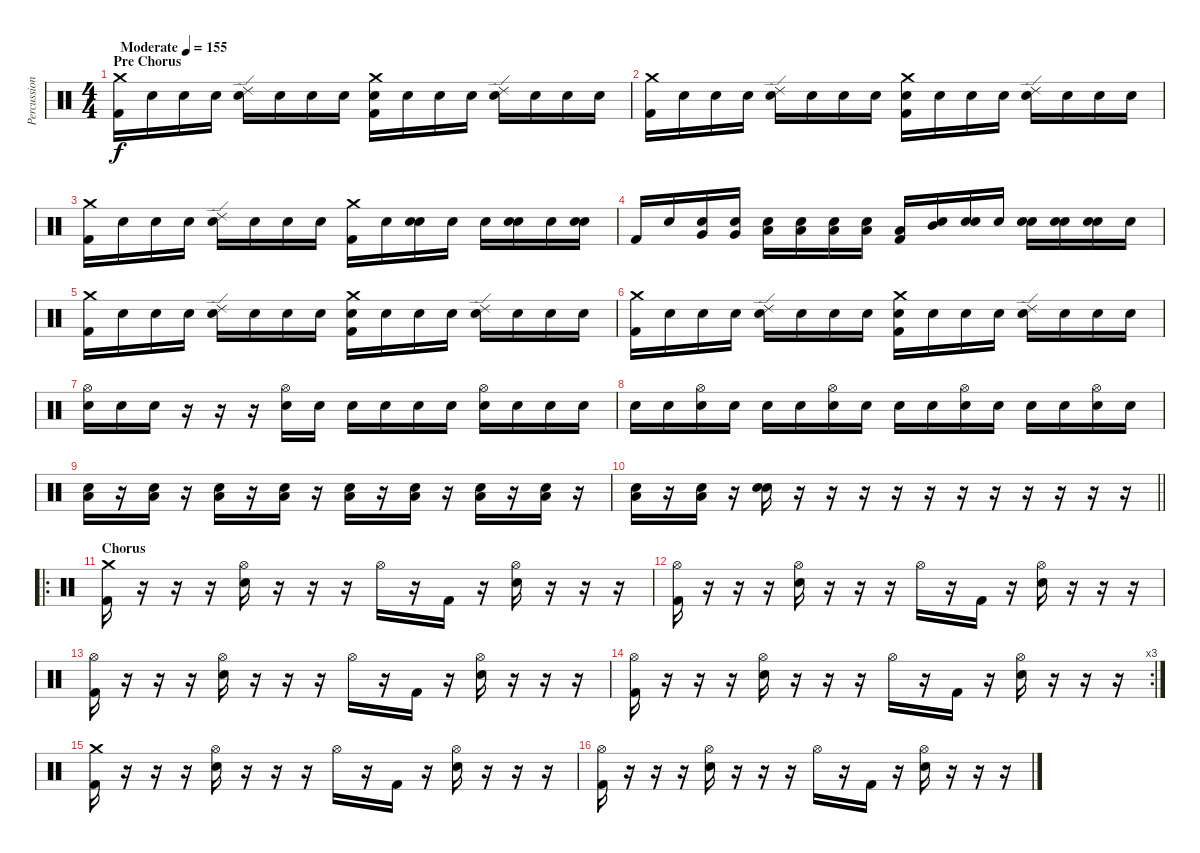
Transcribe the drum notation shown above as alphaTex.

\track ("Percussion" "Percussion") {instrument percussion}
\staff {score}
\articulation defaults
\ts (4 4)
\section ("" "Pre Chorus")
\tempo (155 "Moderate")
\clef neutral
\ks c
("Crash medium (hit)" "Kick (hit) 2").16{dy f} "Snare (hit)".16 "Snare (hit)".16 "Snare (hit)".16 ("Ride (edge) 2" "Snare (hit)").16 "Snare (hit)".16 "Snare (hit)".16 "Snare (hit)".16 ("Crash medium (hit)" "Electric Snare (hit)" "Kick (hit) 2").16 "Snare (hit)".16 "Snare (hit)".16 "Snare (hit)".16 ("Ride (edge) 2" "Snare (hit)").16 "Snare (hit)".16 "Snare (hit)".16 "Snare (hit)".16 |
("Crash medium (hit)" "Kick (hit) 2").16 "Snare (hit)".16 "Snare (hit)".16 "Snare (hit)".16 ("Ride (edge) 2" "Snare (hit)").16 "Snare (hit)".16 "Snare (hit)".16 "Snare (hit)".16 ("Crash medium (hit)" "Electric Snare (hit)" "Kick (hit) 2").16 "Snare (hit)".16 "Snare (hit)".16 "Snare (hit)".16 ("Ride (edge) 2" "Snare (hit)").16 "Snare (hit)".16 "Snare (hit)".16 "Snare (hit)".16 |
("Crash medium (hit)" "Kick (hit) 2").16 "Snare (hit)".16 "Snare (hit)".16 "Snare (hit)".16 ("Ride (edge) 2" "Snare (hit)").16 "Snare (hit)".16 "Snare (hit)".16 "Snare (hit)".16 ("Crash medium (hit)" "Kick (hit) 2").16 "Snare (hit)".16 ("Electric Snare (hit)" "Snare (hit)").16 "Snare (hit)".16 "Snare (hit)".16 ("Electric Snare (hit)" "Snare (hit)").16 "Snare (hit)".16 ("Electric Snare (hit)" "Snare (hit)").16 |
"Kick (hit) 2".16 "Snare (hit)".16 ("Very Low Tom (hit)" "Snare (hit)").16 ("Very Low Tom (hit)" "Snare (hit)").16 ("Low Tom (hit)" "Snare (hit)").16 ("Low Tom (hit)" "Snare (hit)").16 ("Low Floor Tom (hit)" "Snare (hit)").16 ("Low Floor Tom (hit)" "Snare (hit)").16 ("Low Floor Tom (hit)" "Kick (hit) 2").16 ("Mid Tom (hit)" "Snare (hit)").16 ("Electric Snare (hit)" "Snare (hit)").16 "Snare (hit)".16 ("Electric Snare (hit)" "Snare (hit)").16 ("Electric Snare (hit)" "Snare (hit)").16 ("Electric Snare (hit)" "Snare (hit)").16 "Snare (hit)".16 |
("Crash medium (hit)" "Kick (hit) 2").16 "Snare (hit)".16 "Snare (hit)".16 "Snare (hit)".16 ("Ride (edge) 2" "Snare (hit)").16 "Snare (hit)".16 "Snare (hit)".16 "Snare (hit)".16 ("Crash medium (hit)" "Electric Snare (hit)" "Kick (hit) 2").16 "Snare (hit)".16 "Snare (hit)".16 "Snare (hit)".16 ("Ride (edge) 2" "Snare (hit)").16 "Snare (hit)".16 "Snare (hit)".16 "Snare (hit)".16 |
("Crash medium (hit)" "Kick (hit) 2").16 "Snare (hit)".16 "Snare (hit)".16 "Snare (hit)".16 ("Ride (edge) 2" "Snare (hit)").16 "Snare (hit)".16 "Snare (hit)".16 "Snare (hit)".16 ("Crash medium (hit)" "Electric Snare (hit)" "Kick (hit) 2").16 "Snare (hit)".16 "Snare (hit)".16 "Snare (hit)".16 ("Ride (edge) 2" "Snare (hit)").16 "Snare (hit)".16 "Snare (hit)".16 "Snare (hit)".16 |
("Hi-Hat (open)" "Electric Snare (hit)").16 "Snare (hit)".16 "Snare (hit)".16 r.16 r.16 r.16 ("Hi-Hat (open)" "Electric Snare (hit)").16 "Snare (hit)".16 "Snare (hit)".16 "Snare (hit)".16 "Snare (hit)".16 "Snare (hit)".16 ("Hi-Hat (open)" "Electric Snare (hit)").16 "Snare (hit)".16 "Snare (hit)".16 "Snare (hit)".16 |
"Snare (hit)".16 "Snare (hit)".16 ("Hi-Hat (open)" "Electric Snare (hit)").16 "Snare (hit)".16 "Snare (hit)".16 "Snare (hit)".16 ("Hi-Hat (open)" "Electric Snare (hit)").16 "Snare (hit)".16 "Snare (hit)".16 "Snare (hit)".16 ("Hi-Hat (open)" "Electric Snare (hit)").16 "Snare (hit)".16 "Snare (hit)".16 "Snare (hit)".16 ("Hi-Hat (open)" "Electric Snare (hit)").16 "Snare (hit)".16 |
("Electric Snare (hit)" "Low Floor Tom (hit)").16 r.16 ("Electric Snare (hit)" "Low Floor Tom (hit)").16 r.16 ("Electric Snare (hit)" "Low Floor Tom (hit)").16 r.16 ("Electric Snare (hit)" "Low Floor Tom (hit)").16 r.16 ("Electric Snare (hit)" "Low Floor Tom (hit)").16 r.16 ("Electric Snare (hit)" "Low Floor Tom (hit)").16 r.16 ("Low Floor Tom (hit)" "Electric Snare (hit)").16 r.16 ("Low Floor Tom (hit)" "Electric Snare (hit)").16 r.16 |
\barLineRight lightlight
("Low Floor Tom (hit)" "Electric Snare (hit)").16 r.16 ("Low Floor Tom (hit)" "Electric Snare (hit)").16 r.16 ("Electric Snare (hit)" "Snare (hit) 2").16 r.16 r.16 r.16 r.16 r.16 r.16 r.16 r.16 r.16 r.16 r.16 |
\ro
\section ("" "Chorus")
("Crash medium (hit)" "Kick (hit) 2").16 r.16 r.16 r.16 ("Electric Snare (hit)" "Hi-Hat (open)").16 r.16 r.16 r.16 "Hi-Hat (open)".16 r.16 "Kick (hit) 2".16 r.16 ("Electric Snare (hit)" "Hi-Hat (open)").16 r.16 r.16 r.16 |
("Hi-Hat (open)" "Kick (hit) 2").16 r.16 r.16 r.16 ("Electric Snare (hit)" "Hi-Hat (open)").16 r.16 r.16 r.16 "Hi-Hat (open)".16 r.16 "Kick (hit) 2".16 r.16 ("Electric Snare (hit)" "Hi-Hat (open)").16 r.16 r.16 r.16 |
("Hi-Hat (open)" "Kick (hit) 2").16 r.16 r.16 r.16 ("Electric Snare (hit)" "Hi-Hat (open)").16 r.16 r.16 r.16 "Hi-Hat (open)".16 r.16 "Kick (hit) 2".16 r.16 ("Electric Snare (hit)" "Hi-Hat (open)").16 r.16 r.16 r.16 |
\rc 3
("Hi-Hat (open)" "Kick (hit) 2").16 r.16 r.16 r.16 ("Electric Snare (hit)" "Hi-Hat (open)").16 r.16 r.16 r.16 "Hi-Hat (open)".16 r.16 "Kick (hit) 2".16 r.16 ("Electric Snare (hit)" "Hi-Hat (open)").16 r.16 r.16 r.16 |
("Crash medium (hit)" "Kick (hit) 2").16 r.16 r.16 r.16 ("Electric Snare (hit)" "Hi-Hat (open)").16 r.16 r.16 r.16 "Hi-Hat (open)".16 r.16 "Kick (hit) 2".16 r.16 ("Electric Snare (hit)" "Hi-Hat (open)").16 r.16 r.16 r.16 |
("Hi-Hat (open)" "Kick (hit) 2").16 r.16 r.16 r.16 ("Electric Snare (hit)" "Hi-Hat (open)").16 r.16 r.16 r.16 "Hi-Hat (open)".16 r.16 "Kick (hit) 2".16 r.16 ("Electric Snare (hit)" "Hi-Hat (open)").16 r.16 r.16 r.16
